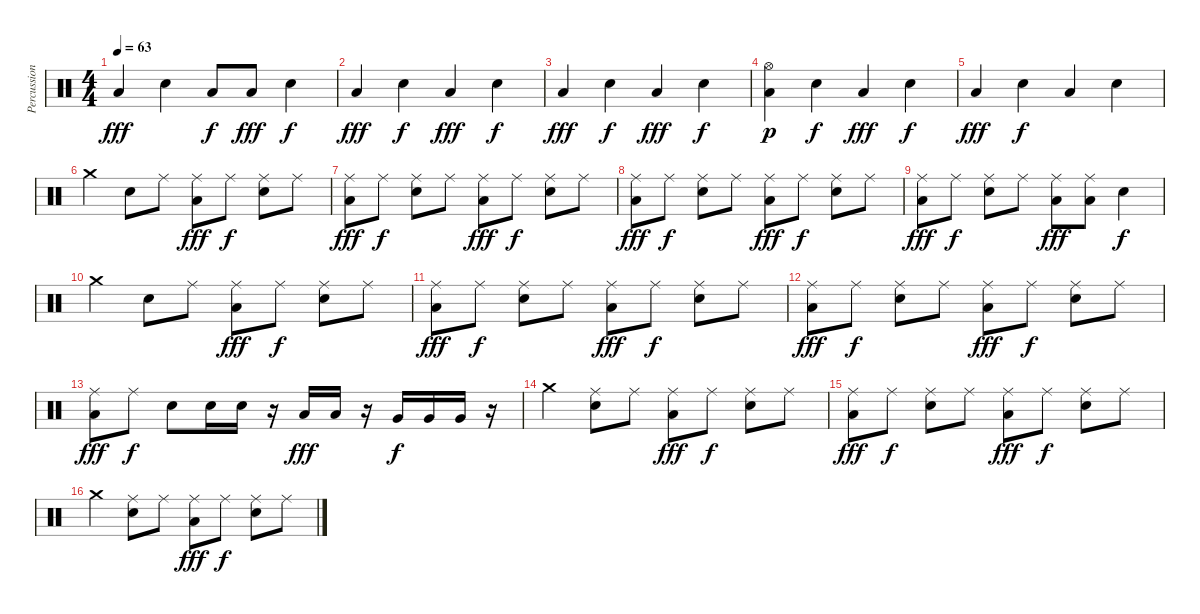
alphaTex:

\track ("Percussion" "Percussion") {instrument percussion}
\staff {score}
\articulation defaults
\ts (4 4)
\tempo 63
\clef neutral
\ks c "Low Floor Tom (hit)".4{dy fff} "Electric Snare (hit)".4 "Low Floor Tom (hit)".8{dy f} "Low Floor Tom (hit)".8{dy fff} "Electric Snare (hit)".4{dy f}
|
"Low Floor Tom (hit)".4{dy fff} "Electric Snare (hit)".4{dy f} "Low Floor Tom (hit)".4{dy fff} "Electric Snare (hit)".4{dy f} |
"Low Floor Tom (hit)".4{dy fff} "Electric Snare (hit)".4{dy f} "Low Floor Tom (hit)".4{dy fff} "Electric Snare (hit)".4{dy f} |
("Low Floor Tom (hit)" "Hi-Hat (open)").4{dy p} "Electric Snare (hit)".4{dy f} "Low Floor Tom (hit)".4{dy fff} "Electric Snare (hit)".4{dy f} |
"Low Floor Tom (hit)".4{dy fff} "Electric Snare (hit)".4{dy f} "Low Floor Tom (hit)".4 "Electric Snare (hit)".4 |
"Crash medium (hit)".4 "Electric Snare (hit)".8 "Ride (middle)".8 ("Low Floor Tom (hit)" "Ride (middle)").8{dy fff} "Ride (middle)".8{dy f} ("Electric Snare (hit)" "Ride (middle)").8 "Ride (middle)".8 |
("Low Floor Tom (hit)" "Ride (middle)").8{dy fff} "Ride (middle)".8{dy f} ("Electric Snare (hit)" "Ride (middle)").8 "Ride (middle)".8 ("Low Floor Tom (hit)" "Ride (middle)").8{dy fff} "Ride (middle)".8{dy f} ("Electric Snare (hit)" "Ride (middle)").8 "Ride (middle)".8 |
("Low Floor Tom (hit)" "Ride (middle)").8{dy fff} "Ride (middle)".8{dy f} ("Electric Snare (hit)" "Ride (middle)").8 "Ride (middle)".8 ("Low Floor Tom (hit)" "Ride (middle)").8{dy fff} "Ride (middle)".8{dy f} ("Electric Snare (hit)" "Ride (middle)").8 "Ride (middle)".8 |
("Low Floor Tom (hit)" "Ride (middle)").8{dy fff} "Ride (middle)".8{dy f} ("Electric Snare (hit)" "Ride (middle)").8 "Ride (middle)".8 ("Low Floor Tom (hit)" "Ride (middle)").8{dy fff} ("Low Floor Tom (hit)" "Ride (middle)").8 "Electric Snare (hit)".4{dy f} |
"Crash medium (hit)".4 "Electric Snare (hit)".8 "Ride (middle)".8 ("Low Floor Tom (hit)" "Ride (middle)").8{dy fff} "Ride (middle)".8{dy f} ("Electric Snare (hit)" "Ride (middle)").8 "Ride (middle)".8 |
("Low Floor Tom (hit)" "Ride (middle)").8{dy fff} "Ride (middle)".8{dy f} ("Electric Snare (hit)" "Ride (middle)").8 "Ride (middle)".8 ("Low Floor Tom (hit)" "Ride (middle)").8{dy fff} "Ride (middle)".8{dy f} ("Electric Snare (hit)" "Ride (middle)").8 "Ride (middle)".8 |
("Low Floor Tom (hit)" "Ride (middle)").8{dy fff} "Ride (middle)".8{dy f} ("Electric Snare (hit)" "Ride (middle)").8 "Ride (middle)".8 ("Low Floor Tom (hit)" "Ride (middle)").8{dy fff} "Ride (middle)".8{dy f} ("Electric Snare (hit)" "Ride (middle)").8 "Ride (middle)".8 |
("Low Floor Tom (hit)" "Ride (middle)").8{dy fff} "Ride (middle)".8{dy f} "Electric Snare (hit)".8 "Electric Snare (hit)".16 "Electric Snare (hit)".16 r.16 "Low Floor Tom (hit)".16{dy fff} "Low Floor Tom (hit)".16 r.16 "Very Low Tom (hit)".16{dy f} "Very Low Tom (hit)".16 "Very Low Tom (hit)".16 r.16 |
"Crash medium (hit)".4 ("Electric Snare (hit)" "Ride (middle)").8 "Ride (middle)".8 ("Low Floor Tom (hit)" "Ride (middle)").8{dy fff} "Ride (middle)".8{dy f} ("Electric Snare (hit)" "Ride (middle)").8 "Ride (middle)".8 |
("Low Floor Tom (hit)" "Ride (middle)").8{dy fff} "Ride (middle)".8{dy f} ("Electric Snare (hit)" "Ride (middle)").8 "Ride (middle)".8 ("Low Floor Tom (hit)" "Ride (middle)").8{dy fff} "Ride (middle)".8{dy f} ("Electric Snare (hit)" "Ride (middle)").8 "Ride (middle)".8 |
"Crash medium (hit)".4 ("Electric Snare (hit)" "Ride (middle)").8 "Ride (middle)".8 ("Low Floor Tom (hit)" "Ride (middle)").8{dy fff} "Ride (middle)".8{dy f} ("Electric Snare (hit)" "Ride (middle)").8 "Ride (middle)".8
